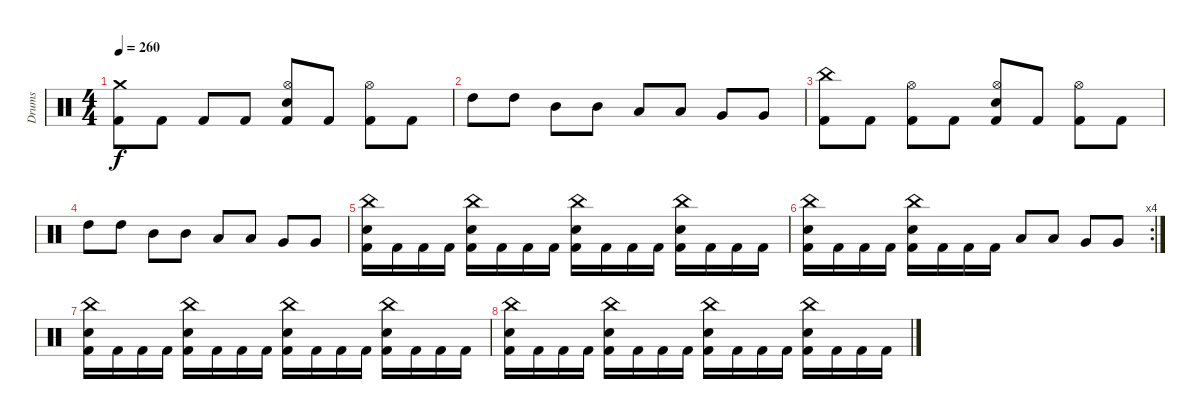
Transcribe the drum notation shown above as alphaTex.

\track ("Drums" "Drums") {instrument percussion}
\staff {score}
\articulation defaults
\ts (4 4)
\tempo 260
\clef neutral
\ks c
("Crash medium (hit)" "Kick (hit) 2").8{dy f} "Kick (hit) 2".8 "Kick (hit) 2".8 "Kick (hit) 2".8 ("Hi-Hat (open)" "Electric Snare (hit)" "Kick (hit) 2").8 "Kick (hit) 2".8 ("Hi-Hat (open)" "Kick (hit) 2").8 "Kick (hit) 2".8 |
"High Tom (hit)".8 "High Tom (hit)".8 "Mid Tom (hit)".8 "Mid Tom (hit)".8 "Low Tom (hit)".8 "Low Tom (hit)".8 "Very Low Tom (hit)".8 "Very Low Tom (hit)".8 |
("China (hit)" "Kick (hit) 2").8 "Kick (hit) 2".8 ("Hi-Hat (open)" "Kick (hit) 2").8 "Kick (hit) 2".8 ("Hi-Hat (open)" "Electric Snare (hit)" "Kick (hit) 2").8 "Kick (hit) 2".8 ("Hi-Hat (open)" "Kick (hit) 2").8 "Kick (hit) 2".8 |
"High Tom (hit)".8 "High Tom (hit)".8 "Mid Tom (hit)".8 "Mid Tom (hit)".8 "Low Tom (hit)".8 "Low Tom (hit)".8 "Very Low Tom (hit)".8 "Very Low Tom (hit)".8 |
("China (hit)" "Electric Snare (hit)" "Kick (hit) 2").16 "Kick (hit) 2".16 "Kick (hit) 2".16 "Kick (hit) 2".16 ("China (hit)" "Electric Snare (hit)" "Kick (hit) 2").16 "Kick (hit) 2".16 "Kick (hit) 2".16 "Kick (hit) 2".16 ("China (hit)" "Electric Snare (hit)" "Kick (hit) 2").16 "Kick (hit) 2".16 "Kick (hit) 2".16 "Kick (hit) 2".16 ("China (hit)" "Electric Snare (hit)" "Kick (hit) 2").16 "Kick (hit) 2".16 "Kick (hit) 2".16 "Kick (hit) 2".16 |
\rc 4
("China (hit)" "Electric Snare (hit)" "Kick (hit) 2").16 "Kick (hit) 2".16 "Kick (hit) 2".16 "Kick (hit) 2".16 ("China (hit)" "Electric Snare (hit)" "Kick (hit) 2").16 "Kick (hit) 2".16 "Kick (hit) 2".16 "Kick (hit) 2".16 "Low Tom (hit)".8 "Low Tom (hit)".8 "Very Low Tom (hit)".8 "Very Low Tom (hit)".8 |
("China (hit)" "Electric Snare (hit)" "Kick (hit) 2").16 "Kick (hit) 2".16 "Kick (hit) 2".16 "Kick (hit) 2".16 ("China (hit)" "Electric Snare (hit)" "Kick (hit) 2").16 "Kick (hit) 2".16 "Kick (hit) 2".16 "Kick (hit) 2".16 ("China (hit)" "Electric Snare (hit)" "Kick (hit) 2").16 "Kick (hit) 2".16 "Kick (hit) 2".16 "Kick (hit) 2".16 ("China (hit)" "Electric Snare (hit)" "Kick (hit) 2").16 "Kick (hit) 2".16 "Kick (hit) 2".16 "Kick (hit) 2".16 |
("China (hit)" "Electric Snare (hit)" "Kick (hit) 2").16 "Kick (hit) 2".16 "Kick (hit) 2".16 "Kick (hit) 2".16 ("China (hit)" "Electric Snare (hit)" "Kick (hit) 2").16 "Kick (hit) 2".16 "Kick (hit) 2".16 "Kick (hit) 2".16 ("China (hit)" "Electric Snare (hit)" "Kick (hit) 2").16 "Kick (hit) 2".16 "Kick (hit) 2".16 "Kick (hit) 2".16 ("China (hit)" "Electric Snare (hit)" "Kick (hit) 2").16 "Kick (hit) 2".16 "Kick (hit) 2".16 "Kick (hit) 2".16
